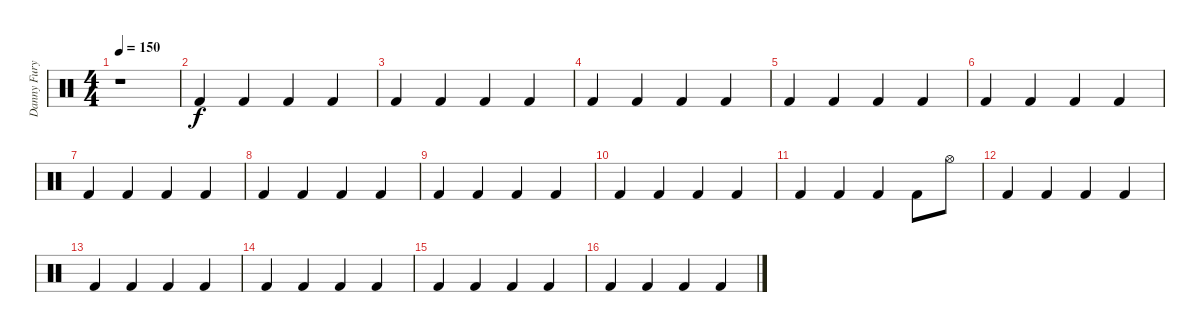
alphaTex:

\track ("Danny Fury" "Danny Fury") {instrument percussion}
\staff {score}
\articulation defaults
\ts (4 4)
\tempo 150
\clef neutral
\ks c
r.1{dy f} |
"Kick (hit) 2".4 "Kick (hit) 2".4 "Kick (hit) 2".4 "Kick (hit) 2".4 |
"Kick (hit) 2".4 "Kick (hit) 2".4 "Kick (hit) 2".4 "Kick (hit) 2".4 |
"Kick (hit) 2".4 "Kick (hit) 2".4 "Kick (hit) 2".4 "Kick (hit) 2".4 |
"Kick (hit) 2".4 "Kick (hit) 2".4 "Kick (hit) 2".4 "Kick (hit) 2".4 |
"Kick (hit) 2".4 "Kick (hit) 2".4 "Kick (hit) 2".4 "Kick (hit) 2".4 |
"Kick (hit) 2".4 "Kick (hit) 2".4 "Kick (hit) 2".4 "Kick (hit) 2".4 |
"Kick (hit) 2".4 "Kick (hit) 2".4 "Kick (hit) 2".4 "Kick (hit) 2".4 |
"Kick (hit) 2".4 "Kick (hit) 2".4 "Kick (hit) 2".4 "Kick (hit) 2".4 |
"Kick (hit) 2".4 "Kick (hit) 2".4 "Kick (hit) 2".4 "Kick (hit) 2".4 |
"Kick (hit) 2".4 "Kick (hit) 2".4 "Kick (hit) 2".4 "Kick (hit) 2".8 "Hi-Hat (open)".8 |
"Kick (hit) 2".4 "Kick (hit) 2".4 "Kick (hit) 2".4 "Kick (hit) 2".4 |
"Kick (hit) 2".4 "Kick (hit) 2".4 "Kick (hit) 2".4 "Kick (hit) 2".4 |
"Kick (hit) 2".4 "Kick (hit) 2".4 "Kick (hit) 2".4 "Kick (hit) 2".4 |
"Kick (hit) 2".4 "Kick (hit) 2".4 "Kick (hit) 2".4 "Kick (hit) 2".4 |
"Kick (hit) 2".4 "Kick (hit) 2".4 "Kick (hit) 2".4 "Kick (hit) 2".4
